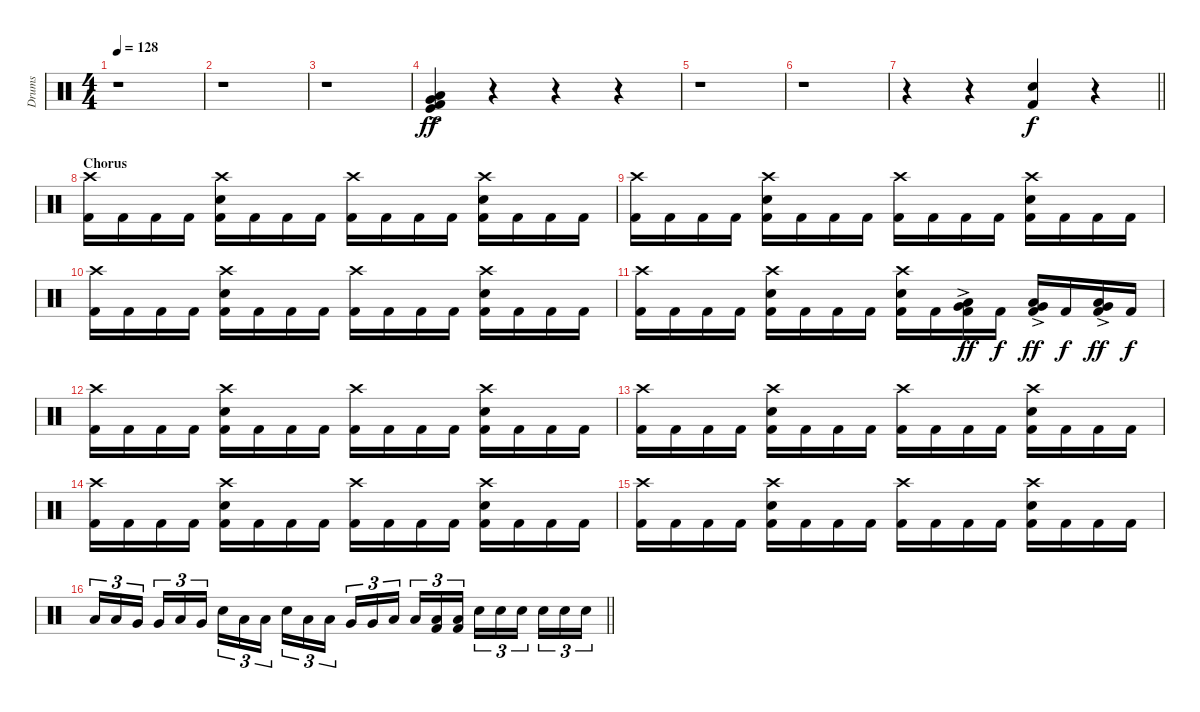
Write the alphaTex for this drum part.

\track ("Drums" "Drums") {instrument percussion}
\staff {score}
\articulation defaults
\ts (4 4)
\tempo 128
\clef neutral
\ks c
r.1{dy f} |
r.1 |
r.1 |
("Low Floor Tom (hit)"{ac} "Very Low Tom (hit)"{ac} "Kick (hit)" "Kick (hit) 2").4{dy ff} r.4 r.4 r.4 |
r.1 |
r.1 |
\barLineRight lightlight
r.4 r.4 ("Electric Snare (hit)" "Kick (hit) 2").4{dy f} r.4 |
\section ("" "Chorus")
("Crash high (hit)" "Kick (hit) 2").16 "Kick (hit) 2".16 "Kick (hit) 2".16 "Kick (hit) 2".16 ("Crash high (hit)" "Electric Snare (hit)" "Kick (hit) 2").16 "Kick (hit) 2".16 "Kick (hit) 2".16 "Kick (hit) 2".16 ("Crash high (hit)" "Kick (hit) 2").16 "Kick (hit) 2".16 "Kick (hit) 2".16 "Kick (hit) 2".16 ("Crash high (hit)" "Electric Snare (hit)" "Kick (hit) 2").16 "Kick (hit) 2".16 "Kick (hit) 2".16 "Kick (hit) 2".16 |
("Crash high (hit)" "Kick (hit) 2").16 "Kick (hit) 2".16 "Kick (hit) 2".16 "Kick (hit) 2".16 ("Crash high (hit)" "Electric Snare (hit)" "Kick (hit) 2").16 "Kick (hit) 2".16 "Kick (hit) 2".16 "Kick (hit) 2".16 ("Crash high (hit)" "Kick (hit) 2").16 "Kick (hit) 2".16 "Kick (hit) 2".16 "Kick (hit) 2".16 ("Crash high (hit)" "Electric Snare (hit)" "Kick (hit) 2").16 "Kick (hit) 2".16 "Kick (hit) 2".16 "Kick (hit) 2".16 |
("Crash high (hit)" "Kick (hit) 2").16 "Kick (hit) 2".16 "Kick (hit) 2".16 "Kick (hit) 2".16 ("Crash high (hit)" "Electric Snare (hit)" "Kick (hit) 2").16 "Kick (hit) 2".16 "Kick (hit) 2".16 "Kick (hit) 2".16 ("Crash high (hit)" "Kick (hit) 2").16 "Kick (hit) 2".16 "Kick (hit) 2".16 "Kick (hit) 2".16 ("Crash high (hit)" "Electric Snare (hit)" "Kick (hit) 2").16 "Kick (hit) 2".16 "Kick (hit) 2".16 "Kick (hit) 2".16 |
("Crash high (hit)" "Kick (hit) 2").16 "Kick (hit) 2".16 "Kick (hit) 2".16 "Kick (hit) 2".16 ("Crash high (hit)" "Electric Snare (hit)" "Kick (hit) 2").16 "Kick (hit) 2".16 "Kick (hit) 2".16 "Kick (hit) 2".16 ("Crash high (hit)" "Electric Snare (hit)" "Kick (hit) 2").16 "Kick (hit) 2".16 ("Very Low Tom (hit)"{ac} "Low Floor Tom (hit)"{ac} "Kick (hit) 2").16{dy ff} "Kick (hit) 2".16{dy f} ("Very Low Tom (hit)"{ac} "Low Floor Tom (hit)"{ac} "Kick (hit) 2").16{dy ff} "Kick (hit) 2".16{dy f} ("Very Low Tom (hit)"{ac} "Low Floor Tom (hit)"{ac} "Kick (hit) 2").16{dy ff} "Kick (hit) 2".16{dy f} |
("Crash high (hit)" "Kick (hit) 2").16 "Kick (hit) 2".16 "Kick (hit) 2".16 "Kick (hit) 2".16 ("Crash high (hit)" "Electric Snare (hit)" "Kick (hit) 2").16 "Kick (hit) 2".16 "Kick (hit) 2".16 "Kick (hit) 2".16 ("Crash high (hit)" "Kick (hit) 2").16 "Kick (hit) 2".16 "Kick (hit) 2".16 "Kick (hit) 2".16 ("Crash high (hit)" "Electric Snare (hit)" "Kick (hit) 2").16 "Kick (hit) 2".16 "Kick (hit) 2".16 "Kick (hit) 2".16 |
("Crash high (hit)" "Kick (hit) 2").16 "Kick (hit) 2".16 "Kick (hit) 2".16 "Kick (hit) 2".16 ("Crash high (hit)" "Electric Snare (hit)" "Kick (hit) 2").16 "Kick (hit) 2".16 "Kick (hit) 2".16 "Kick (hit) 2".16 ("Crash high (hit)" "Kick (hit) 2").16 "Kick (hit) 2".16 "Kick (hit) 2".16 "Kick (hit) 2".16 ("Crash high (hit)" "Electric Snare (hit)" "Kick (hit) 2").16 "Kick (hit) 2".16 "Kick (hit) 2".16 "Kick (hit) 2".16 |
("Crash high (hit)" "Kick (hit) 2").16 "Kick (hit) 2".16 "Kick (hit) 2".16 "Kick (hit) 2".16 ("Crash high (hit)" "Electric Snare (hit)" "Kick (hit) 2").16 "Kick (hit) 2".16 "Kick (hit) 2".16 "Kick (hit) 2".16 ("Crash high (hit)" "Kick (hit) 2").16 "Kick (hit) 2".16 "Kick (hit) 2".16 "Kick (hit) 2".16 ("Crash high (hit)" "Electric Snare (hit)" "Kick (hit) 2").16 "Kick (hit) 2".16 "Kick (hit) 2".16 "Kick (hit) 2".16 |
("Crash high (hit)" "Kick (hit) 2").16 "Kick (hit) 2".16 "Kick (hit) 2".16 "Kick (hit) 2".16 ("Crash high (hit)" "Electric Snare (hit)" "Kick (hit) 2").16 "Kick (hit) 2".16 "Kick (hit) 2".16 "Kick (hit) 2".16 ("Crash high (hit)" "Kick (hit) 2").16 "Kick (hit) 2".16 "Kick (hit) 2".16 "Kick (hit) 2".16 ("Crash high (hit)" "Electric Snare (hit)" "Kick (hit) 2").16 "Kick (hit) 2".16 "Kick (hit) 2".16 "Kick (hit) 2".16 |
\barLineRight lightlight "Low Tom (hit)".16{tu (3 2)} "Low Tom (hit)".16{tu (3 2)} "Very Low Tom (hit)".16{tu (3 2)} "Very Low Tom (hit)".16{tu (3 2)} "Low Tom (hit)".16{tu (3 2)} "Very Low Tom (hit)".16{tu (3 2)} "Electric Snare (hit)".16{tu (3 2)} "Low Tom (hit)".16{tu (3 2)} "Low Tom (hit)".16{tu (3 2)} "Electric Snare (hit)".16{tu (3 2)} "Low Tom (hit)".16{tu (3 2)} "Low Tom (hit)".16{tu (3 2)} "Very Low Tom (hit)".16{tu (3 2)} "Very Low Tom (hit)".16{tu (3 2)} "Low Floor Tom (hit)".16{tu (3 2)} "Low Floor Tom (hit)".16{tu (3 2)}
("Low Tom (hit)" "Kick (hit) 2").16{tu (3 2)} ("Low Tom (hit)" "Kick (hit) 2").16{tu (3 2)} "Electric Snare (hit)".16{tu (3 2)} "Electric Snare (hit)".16{tu (3 2)} "Electric Snare (hit)".16{tu (3 2)} "Electric Snare (hit)".16{tu (3 2)} "Electric Snare (hit)".16{tu (3 2)} "Electric Snare (hit)".16{tu (3 2)}
